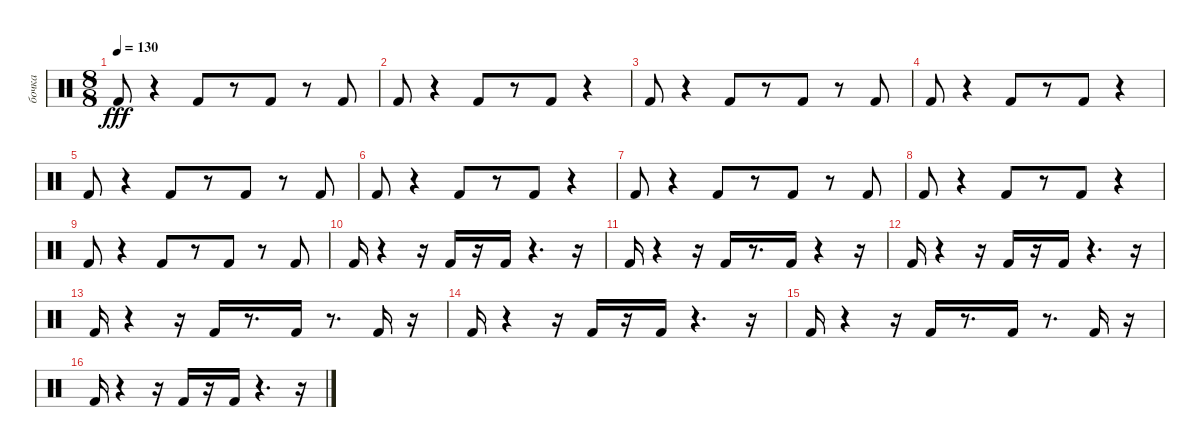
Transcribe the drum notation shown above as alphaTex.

\track ("бочка" "бочка") {instrument percussion}
\staff {score}
\articulation defaults
\ts (8 8)
\tempo 130
\clef neutral
\ks c "Kick (hit) 2".8{dy fff}
r.4 "Kick (hit) 2".8 r.8 "Kick (hit) 2".8 r.8 "Kick (hit) 2".8 |
"Kick (hit) 2".8 r.4 "Kick (hit) 2".8 r.8 "Kick (hit) 2".8 r.4 |
"Kick (hit) 2".8 r.4 "Kick (hit) 2".8 r.8 "Kick (hit) 2".8 r.8 "Kick (hit) 2".8 |
"Kick (hit) 2".8 r.4 "Kick (hit) 2".8 r.8 "Kick (hit) 2".8 r.4 |
"Kick (hit) 2".8 r.4 "Kick (hit) 2".8 r.8 "Kick (hit) 2".8 r.8 "Kick (hit) 2".8 |
"Kick (hit) 2".8 r.4 "Kick (hit) 2".8 r.8 "Kick (hit) 2".8 r.4 |
"Kick (hit) 2".8 r.4 "Kick (hit) 2".8 r.8 "Kick (hit) 2".8 r.8 "Kick (hit) 2".8 |
"Kick (hit) 2".8 r.4 "Kick (hit) 2".8 r.8 "Kick (hit) 2".8 r.4 |
"Kick (hit) 2".8 r.4 "Kick (hit) 2".8 r.8 "Kick (hit) 2".8 r.8 "Kick (hit) 2".8 |
"Kick (hit) 2".16 r.4 r.16 "Kick (hit) 2".16 r.16 "Kick (hit) 2".16 r.4{d} r.16 |
"Kick (hit) 2".16 r.4 r.16 "Kick (hit) 2".16 r.8{d} "Kick (hit) 2".16 r.4 r.16 |
"Kick (hit) 2".16 r.4 r.16 "Kick (hit) 2".16 r.16 "Kick (hit) 2".16 r.4{d} r.16 |
"Kick (hit) 2".16 r.4 r.16 "Kick (hit) 2".16 r.8{d} "Kick (hit) 2".16 r.8{d} "Kick (hit) 2".16 r.16 |
"Kick (hit) 2".16 r.4 r.16 "Kick (hit) 2".16 r.16 "Kick (hit) 2".16 r.4{d} r.16 |
"Kick (hit) 2".16 r.4 r.16 "Kick (hit) 2".16 r.8{d} "Kick (hit) 2".16 r.8{d} "Kick (hit) 2".16 r.16 |
"Kick (hit) 2".16 r.4 r.16 "Kick (hit) 2".16 r.16 "Kick (hit) 2".16 r.4{d} r.16
